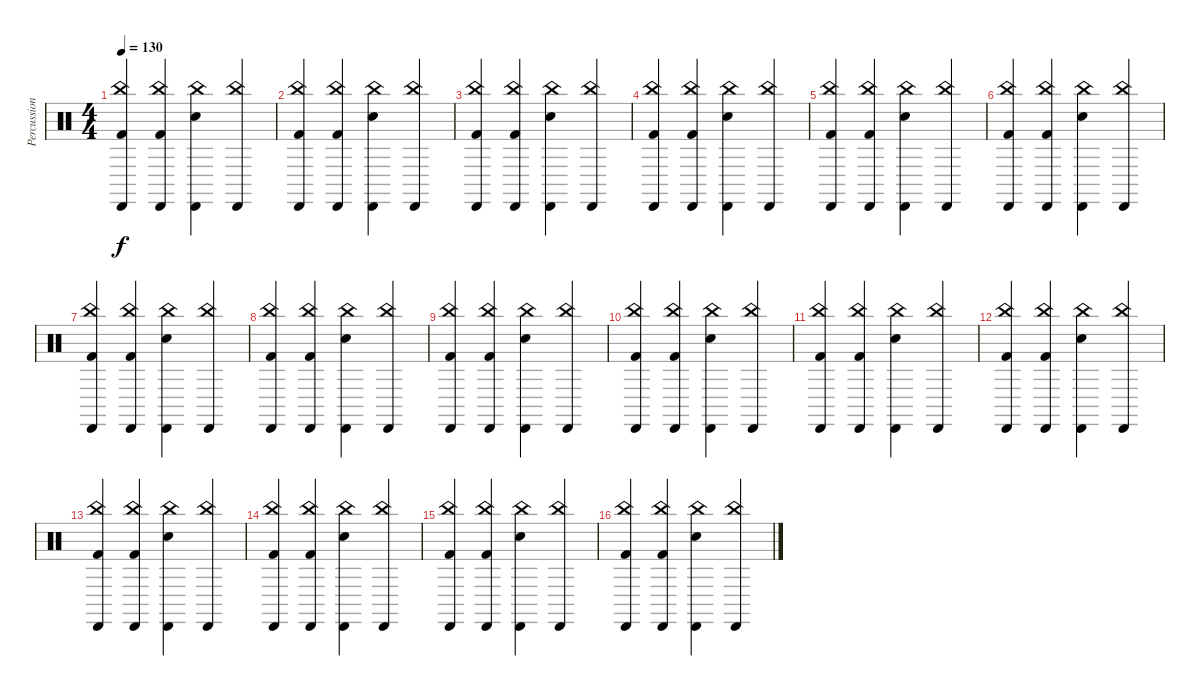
\track ("Percussion" "Percussion") {instrument percussion}
\staff {score}
\articulation defaults
\ts (4 4)
\tempo 130
\clef neutral
\ks c
("Kick (hit) 2" "China (hit)" "Cabasa (hit)").4{dy f} ("Kick (hit) 2" "China (hit)" "Cabasa (hit)").4 ("Snare (hit) 2" "China (hit)" "Cabasa (hit)").4 ("China (hit)" "Cabasa (hit)").4 |
("Kick (hit) 2" "China (hit)" "Cabasa (hit)").4 ("Kick (hit) 2" "China (hit)" "Cabasa (hit)").4 ("Snare (hit) 2" "China (hit)" "Cabasa (hit)").4 ("China (hit)" "Cabasa (hit)").4 |
("Kick (hit) 2" "China (hit)" "Cabasa (hit)").4 ("Kick (hit) 2" "China (hit)" "Cabasa (hit)").4 ("Snare (hit) 2" "China (hit)" "Cabasa (hit)").4 ("China (hit)" "Cabasa (hit)").4 |
("Kick (hit) 2" "China (hit)" "Cabasa (hit)").4 ("Kick (hit) 2" "China (hit)" "Cabasa (hit)").4 ("Snare (hit) 2" "China (hit)" "Cabasa (hit)").4 ("China (hit)" "Cabasa (hit)").4 |
("Kick (hit) 2" "China (hit)" "Cabasa (hit)").4 ("Kick (hit) 2" "China (hit)" "Cabasa (hit)").4 ("Snare (hit) 2" "China (hit)" "Cabasa (hit)").4 ("China (hit)" "Cabasa (hit)").4 |
("Kick (hit) 2" "China (hit)" "Cabasa (hit)").4 ("Kick (hit) 2" "China (hit)" "Cabasa (hit)").4 ("Snare (hit) 2" "China (hit)" "Cabasa (hit)").4 ("China (hit)" "Cabasa (hit)").4 |
("Kick (hit) 2" "China (hit)" "Cabasa (hit)").4 ("Kick (hit) 2" "China (hit)" "Cabasa (hit)").4 ("Snare (hit) 2" "China (hit)" "Cabasa (hit)").4 ("China (hit)" "Cabasa (hit)").4 |
("Kick (hit) 2" "China (hit)" "Cabasa (hit)").4 ("Kick (hit) 2" "China (hit)" "Cabasa (hit)").4 ("Snare (hit) 2" "China (hit)" "Cabasa (hit)").4 ("China (hit)" "Cabasa (hit)").4 |
("Kick (hit) 2" "China (hit)" "Cabasa (hit)").4 ("Kick (hit) 2" "China (hit)" "Cabasa (hit)").4 ("Snare (hit) 2" "China (hit)" "Cabasa (hit)").4 ("China (hit)" "Cabasa (hit)").4 |
("Kick (hit) 2" "China (hit)" "Cabasa (hit)").4 ("Kick (hit) 2" "China (hit)" "Cabasa (hit)").4 ("Snare (hit) 2" "China (hit)" "Cabasa (hit)").4 ("China (hit)" "Cabasa (hit)").4 |
("Kick (hit) 2" "China (hit)" "Cabasa (hit)").4 ("Kick (hit) 2" "China (hit)" "Cabasa (hit)").4 ("Snare (hit) 2" "China (hit)" "Cabasa (hit)").4 ("China (hit)" "Cabasa (hit)").4 |
("Kick (hit) 2" "China (hit)" "Cabasa (hit)").4 ("Kick (hit) 2" "China (hit)" "Cabasa (hit)").4 ("Snare (hit) 2" "China (hit)" "Cabasa (hit)").4 ("China (hit)" "Cabasa (hit)").4 |
("Kick (hit) 2" "China (hit)" "Cabasa (hit)").4 ("Kick (hit) 2" "China (hit)" "Cabasa (hit)").4 ("Snare (hit) 2" "China (hit)" "Cabasa (hit)").4 ("China (hit)" "Cabasa (hit)").4 |
("Kick (hit) 2" "China (hit)" "Cabasa (hit)").4 ("Kick (hit) 2" "China (hit)" "Cabasa (hit)").4 ("Snare (hit) 2" "China (hit)" "Cabasa (hit)").4 ("China (hit)" "Cabasa (hit)").4 |
("Kick (hit) 2" "China (hit)" "Cabasa (hit)").4 ("Kick (hit) 2" "China (hit)" "Cabasa (hit)").4 ("Snare (hit) 2" "China (hit)" "Cabasa (hit)").4 ("China (hit)" "Cabasa (hit)").4 |
("Kick (hit) 2" "China (hit)" "Cabasa (hit)").4 ("Kick (hit) 2" "China (hit)" "Cabasa (hit)").4 ("Snare (hit) 2" "China (hit)" "Cabasa (hit)").4 ("China (hit)" "Cabasa (hit)").4
